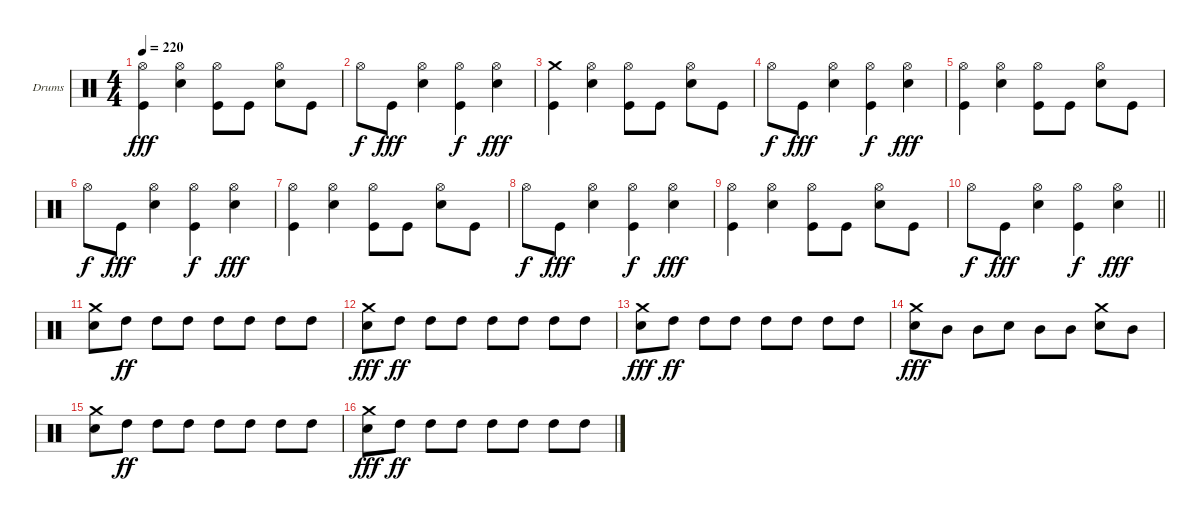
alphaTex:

\bracketExtendMode groupsimilarinstruments
\firstSystemTrackNameOrientation horizontal
\otherSystemsTrackNameOrientation horizontal
\track ("Stefan Schwarzmann" "Drums") {instrument percussion}
\staff {score}
\articulation defaults
\ts (4 4)
\tempo 220
\clef neutral
\ks c
("Kick (hit)" "Hi-Hat (open)").4{dy fff} ("Snare (hit) 2" "Hi-Hat (open)").4 ("Kick (hit)" "Hi-Hat (open)").8 "Kick (hit)".8 ("Snare (hit) 2" "Hi-Hat (open)").8 "Kick (hit)".8 |
"Hi-Hat (open)".8{dy f} "Kick (hit)".8{dy fff} ("Snare (hit) 2" "Hi-Hat (open)").4 ("Kick (hit)" "Hi-Hat (open)").4{dy f} ("Snare (hit) 2" "Hi-Hat (open)").4{dy fff} |
("Kick (hit)" "Crash medium (hit)").4 ("Snare (hit) 2" "Hi-Hat (open)").4 ("Kick (hit)" "Hi-Hat (open)").8 "Kick (hit)".8 ("Snare (hit) 2" "Hi-Hat (open)").8 "Kick (hit)".8 |
"Hi-Hat (open)".8{dy f} "Kick (hit)".8{dy fff} ("Snare (hit) 2" "Hi-Hat (open)").4 ("Kick (hit)" "Hi-Hat (open)").4{dy f} ("Snare (hit) 2" "Hi-Hat (open)").4{dy fff} |
("Kick (hit)" "Hi-Hat (open)").4 ("Snare (hit) 2" "Hi-Hat (open)").4 ("Kick (hit)" "Hi-Hat (open)").8 "Kick (hit)".8 ("Snare (hit) 2" "Hi-Hat (open)").8 "Kick (hit)".8 |
"Hi-Hat (open)".8{dy f} "Kick (hit)".8{dy fff} ("Snare (hit) 2" "Hi-Hat (open)").4 ("Kick (hit)" "Hi-Hat (open)").4{dy f} ("Snare (hit) 2" "Hi-Hat (open)").4{dy fff} |
("Kick (hit)" "Hi-Hat (open)").4 ("Snare (hit) 2" "Hi-Hat (open)").4 ("Kick (hit)" "Hi-Hat (open)").8 "Kick (hit)".8 ("Snare (hit) 2" "Hi-Hat (open)").8 "Kick (hit)".8 |
"Hi-Hat (open)".8{dy f} "Kick (hit)".8{dy fff} ("Snare (hit) 2" "Hi-Hat (open)").4 ("Kick (hit)" "Hi-Hat (open)").4{dy f} ("Snare (hit) 2" "Hi-Hat (open)").4{dy fff} |
("Kick (hit)" "Hi-Hat (open)").4 ("Snare (hit) 2" "Hi-Hat (open)").4 ("Kick (hit)" "Hi-Hat (open)").8 "Kick (hit)".8 ("Snare (hit) 2" "Hi-Hat (open)").8 "Kick (hit)".8 |
\barLineRight lightlight "Hi-Hat (open)".8{dy f} "Kick (hit)".8{dy fff}
("Snare (hit) 2" "Hi-Hat (open)").4 ("Kick (hit)" "Hi-Hat (open)").4{dy f} ("Snare (hit) 2" "Hi-Hat (open)").4{dy fff} |
("Snare (hit) 2" "Crash medium (hit)").8 "High Tom (hit)".8{dy ff} "High Tom (hit)".8 "High Tom (hit)".8 "High Tom (hit)".8 "High Tom (hit)".8 "High Tom (hit)".8 "High Tom (hit)".8 |
("Snare (hit) 2" "Crash medium (hit)").8{dy fff} "High Tom (hit)".8{dy ff} "High Tom (hit)".8 "High Tom (hit)".8 "High Tom (hit)".8 "High Tom (hit)".8 "High Tom (hit)".8 "High Tom (hit)".8 |
("Snare (hit) 2" "Crash medium (hit)").8{dy fff} "High Tom (hit)".8{dy ff} "High Tom (hit)".8 "High Tom (hit)".8 "High Tom (hit)".8 "High Tom (hit)".8 "High Tom (hit)".8 "High Tom (hit)".8 |
("Snare (hit) 2" "Crash medium (hit)").8{dy fff} "Mid Tom (hit)".8 "Mid Tom (hit)".8 "Snare (hit) 2".8 "Mid Tom (hit)".8 "Mid Tom (hit)".8 ("Snare (hit) 2" "Crash medium (hit)").8 "Mid Tom (hit)".8 |
("Snare (hit) 2" "Crash medium (hit)").8 "High Tom (hit)".8{dy ff} "High Tom (hit)".8 "High Tom (hit)".8 "High Tom (hit)".8 "High Tom (hit)".8 "High Tom (hit)".8 "High Tom (hit)".8 |
("Snare (hit) 2" "Crash medium (hit)").8{dy fff} "High Tom (hit)".8{dy ff} "High Tom (hit)".8 "High Tom (hit)".8 "High Tom (hit)".8 "High Tom (hit)".8 "High Tom (hit)".8 "High Tom (hit)".8
